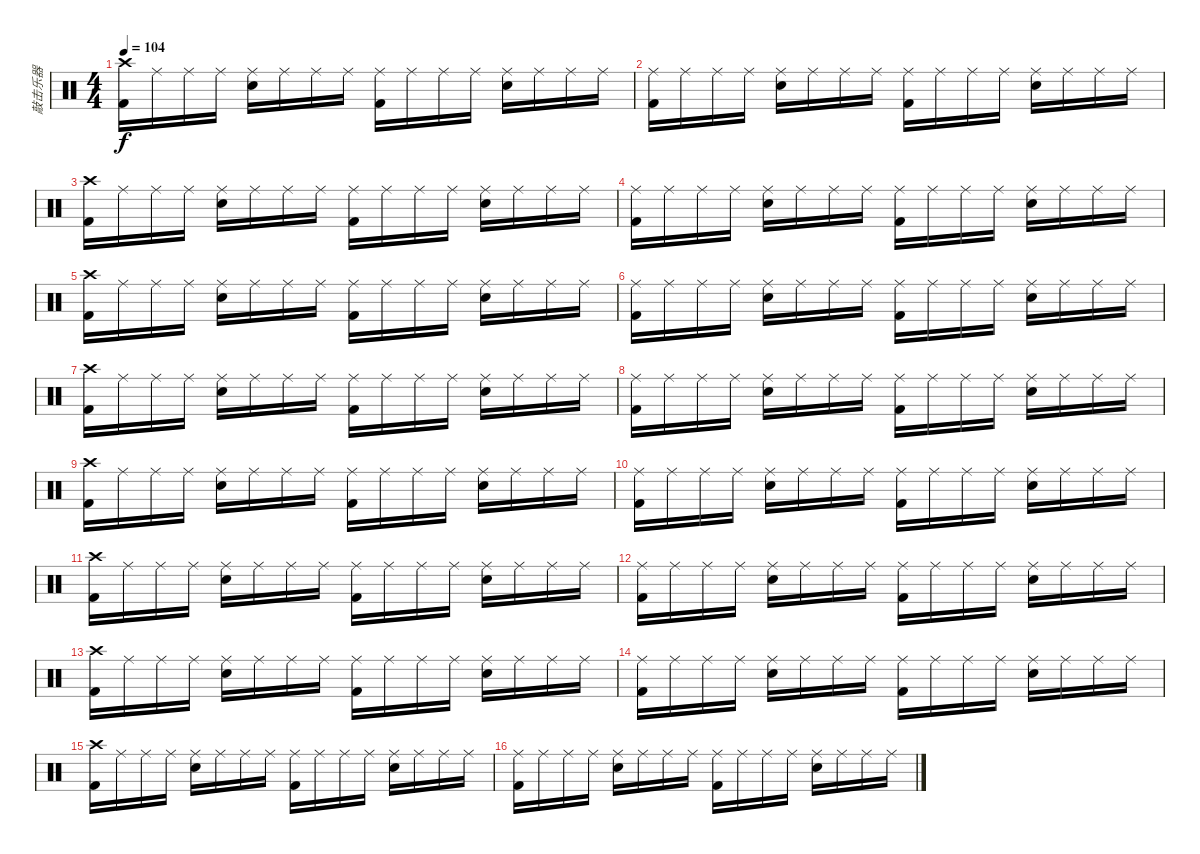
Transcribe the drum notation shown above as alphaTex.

\track ("敲击乐器" "敲击乐器") {instrument percussion}
\staff {score}
\articulation defaults
\ts (4 4)
\tempo 104
\clef neutral
\ks c
("Crash high (hit)" "Kick (hit) 2").16{dy f} "Ride (middle)".16 "Ride (middle)".16 "Ride (middle)".16 ("Ride (middle)" "Electric Snare (hit)").16 "Ride (middle)".16 "Ride (middle)".16 "Ride (middle)".16 ("Ride (middle)" "Kick (hit) 2").16 "Ride (middle)".16 "Ride (middle)".16 "Ride (middle)".16 ("Ride (middle)" "Electric Snare (hit)").16 "Ride (middle)".16 "Ride (middle)".16 "Ride (middle)".16 |
("Ride (middle)" "Kick (hit) 2").16 "Ride (middle)".16 "Ride (middle)".16 "Ride (middle)".16 ("Ride (middle)" "Electric Snare (hit)").16 "Ride (middle)".16 "Ride (middle)".16 "Ride (middle)".16 ("Ride (middle)" "Kick (hit) 2").16 "Ride (middle)".16 "Ride (middle)".16 "Ride (middle)".16 ("Ride (middle)" "Electric Snare (hit)").16 "Ride (middle)".16 "Ride (middle)".16 "Ride (middle)".16 |
("Crash high (hit)" "Kick (hit) 2").16 "Ride (middle)".16 "Ride (middle)".16 "Ride (middle)".16 ("Ride (middle)" "Electric Snare (hit)").16 "Ride (middle)".16 "Ride (middle)".16 "Ride (middle)".16 ("Ride (middle)" "Kick (hit) 2").16 "Ride (middle)".16 "Ride (middle)".16 "Ride (middle)".16 ("Ride (middle)" "Electric Snare (hit)").16 "Ride (middle)".16 "Ride (middle)".16 "Ride (middle)".16 |
("Ride (middle)" "Kick (hit) 2").16 "Ride (middle)".16 "Ride (middle)".16 "Ride (middle)".16 ("Ride (middle)" "Electric Snare (hit)").16 "Ride (middle)".16 "Ride (middle)".16 "Ride (middle)".16 ("Ride (middle)" "Kick (hit) 2").16 "Ride (middle)".16 "Ride (middle)".16 "Ride (middle)".16 ("Ride (middle)" "Electric Snare (hit)").16 "Ride (middle)".16 "Ride (middle)".16 "Ride (middle)".16 |
("Crash high (hit)" "Kick (hit) 2").16 "Ride (middle)".16 "Ride (middle)".16 "Ride (middle)".16 ("Ride (middle)" "Electric Snare (hit)").16 "Ride (middle)".16 "Ride (middle)".16 "Ride (middle)".16 ("Ride (middle)" "Kick (hit) 2").16 "Ride (middle)".16 "Ride (middle)".16 "Ride (middle)".16 ("Ride (middle)" "Electric Snare (hit)").16 "Ride (middle)".16 "Ride (middle)".16 "Ride (middle)".16 |
("Ride (middle)" "Kick (hit) 2").16 "Ride (middle)".16 "Ride (middle)".16 "Ride (middle)".16 ("Ride (middle)" "Electric Snare (hit)").16 "Ride (middle)".16 "Ride (middle)".16 "Ride (middle)".16 ("Ride (middle)" "Kick (hit) 2").16 "Ride (middle)".16 "Ride (middle)".16 "Ride (middle)".16 ("Ride (middle)" "Electric Snare (hit)").16 "Ride (middle)".16 "Ride (middle)".16 "Ride (middle)".16 |
("Crash high (hit)" "Kick (hit) 2").16 "Ride (middle)".16 "Ride (middle)".16 "Ride (middle)".16 ("Ride (middle)" "Electric Snare (hit)").16 "Ride (middle)".16 "Ride (middle)".16 "Ride (middle)".16 ("Ride (middle)" "Kick (hit) 2").16 "Ride (middle)".16 "Ride (middle)".16 "Ride (middle)".16 ("Ride (middle)" "Electric Snare (hit)").16 "Ride (middle)".16 "Ride (middle)".16 "Ride (middle)".16 |
("Ride (middle)" "Kick (hit) 2").16 "Ride (middle)".16 "Ride (middle)".16 "Ride (middle)".16 ("Ride (middle)" "Electric Snare (hit)").16 "Ride (middle)".16 "Ride (middle)".16 "Ride (middle)".16 ("Ride (middle)" "Kick (hit) 2").16 "Ride (middle)".16 "Ride (middle)".16 "Ride (middle)".16 ("Ride (middle)" "Electric Snare (hit)").16 "Ride (middle)".16 "Ride (middle)".16 "Ride (middle)".16 |
("Crash high (hit)" "Kick (hit) 2").16 "Ride (middle)".16 "Ride (middle)".16 "Ride (middle)".16 ("Ride (middle)" "Electric Snare (hit)").16 "Ride (middle)".16 "Ride (middle)".16 "Ride (middle)".16 ("Ride (middle)" "Kick (hit) 2").16 "Ride (middle)".16 "Ride (middle)".16 "Ride (middle)".16 ("Ride (middle)" "Electric Snare (hit)").16 "Ride (middle)".16 "Ride (middle)".16 "Ride (middle)".16 |
("Ride (middle)" "Kick (hit) 2").16 "Ride (middle)".16 "Ride (middle)".16 "Ride (middle)".16 ("Ride (middle)" "Electric Snare (hit)").16 "Ride (middle)".16 "Ride (middle)".16 "Ride (middle)".16 ("Ride (middle)" "Kick (hit) 2").16 "Ride (middle)".16 "Ride (middle)".16 "Ride (middle)".16 ("Ride (middle)" "Electric Snare (hit)").16 "Ride (middle)".16 "Ride (middle)".16 "Ride (middle)".16 |
("Crash high (hit)" "Kick (hit) 2").16 "Ride (middle)".16 "Ride (middle)".16 "Ride (middle)".16 ("Ride (middle)" "Electric Snare (hit)").16 "Ride (middle)".16 "Ride (middle)".16 "Ride (middle)".16 ("Ride (middle)" "Kick (hit) 2").16 "Ride (middle)".16 "Ride (middle)".16 "Ride (middle)".16 ("Ride (middle)" "Electric Snare (hit)").16 "Ride (middle)".16 "Ride (middle)".16 "Ride (middle)".16 |
("Ride (middle)" "Kick (hit) 2").16 "Ride (middle)".16 "Ride (middle)".16 "Ride (middle)".16 ("Ride (middle)" "Electric Snare (hit)").16 "Ride (middle)".16 "Ride (middle)".16 "Ride (middle)".16 ("Ride (middle)" "Kick (hit) 2").16 "Ride (middle)".16 "Ride (middle)".16 "Ride (middle)".16 ("Ride (middle)" "Electric Snare (hit)").16 "Ride (middle)".16 "Ride (middle)".16 "Ride (middle)".16 |
("Crash high (hit)" "Kick (hit) 2").16 "Ride (middle)".16 "Ride (middle)".16 "Ride (middle)".16 ("Ride (middle)" "Electric Snare (hit)").16 "Ride (middle)".16 "Ride (middle)".16 "Ride (middle)".16 ("Ride (middle)" "Kick (hit) 2").16 "Ride (middle)".16 "Ride (middle)".16 "Ride (middle)".16 ("Ride (middle)" "Electric Snare (hit)").16 "Ride (middle)".16 "Ride (middle)".16 "Ride (middle)".16 |
("Ride (middle)" "Kick (hit) 2").16 "Ride (middle)".16 "Ride (middle)".16 "Ride (middle)".16 ("Ride (middle)" "Electric Snare (hit)").16 "Ride (middle)".16 "Ride (middle)".16 "Ride (middle)".16 ("Ride (middle)" "Kick (hit) 2").16 "Ride (middle)".16 "Ride (middle)".16 "Ride (middle)".16 ("Ride (middle)" "Electric Snare (hit)").16 "Ride (middle)".16 "Ride (middle)".16 "Ride (middle)".16 |
("Crash high (hit)" "Kick (hit) 2").16 "Ride (middle)".16 "Ride (middle)".16 "Ride (middle)".16 ("Ride (middle)" "Electric Snare (hit)").16 "Ride (middle)".16 "Ride (middle)".16 "Ride (middle)".16 ("Ride (middle)" "Kick (hit) 2").16 "Ride (middle)".16 "Ride (middle)".16 "Ride (middle)".16 ("Ride (middle)" "Electric Snare (hit)").16 "Ride (middle)".16 "Ride (middle)".16 "Ride (middle)".16 |
("Ride (middle)" "Kick (hit) 2").16 "Ride (middle)".16 "Ride (middle)".16 "Ride (middle)".16 ("Ride (middle)" "Electric Snare (hit)").16 "Ride (middle)".16 "Ride (middle)".16 "Ride (middle)".16 ("Ride (middle)" "Kick (hit) 2").16 "Ride (middle)".16 "Ride (middle)".16 "Ride (middle)".16 ("Ride (middle)" "Electric Snare (hit)").16 "Ride (middle)".16 "Ride (middle)".16 "Ride (middle)".16
